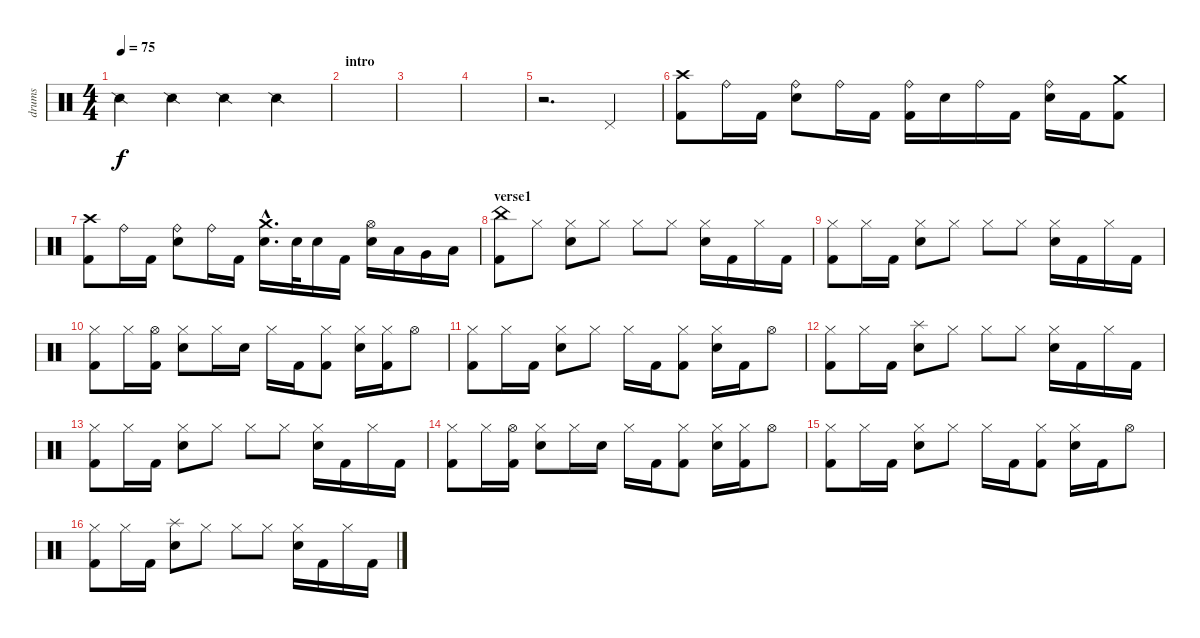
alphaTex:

\track ("drums" "drums") {instrument percussion}
\staff {score}
\articulation defaults
\ts (4 4)
\tempo 75
\clef neutral
\ks c "Snare (side stick) 2".4{dy f} "Snare (side stick) 2".4 "Snare (side stick) 2".4 "Snare (side stick) 2".4
|
\section ("" "intro")
|
|
|
r.2{d} "Pedal Hi-Hat (hit)".4 |
("Crash high (hit)" "Kick (hit) 2").8 "Ride (bell)".16 "Kick (hit) 2".16 ("Ride (bell)" "Electric Snare (hit)").8 "Ride (bell)".16 "Kick (hit) 2".16 ("Ride (bell)" "Kick (hit) 2").16 "Electric Snare (hit)".16 "Ride (bell)".16 "Kick (hit) 2".16 ("Ride (bell)" "Electric Snare (hit)").16 "Kick (hit) 2".16 ("Crash medium (hit)" "Kick (hit) 2").8 |
("Crash high (hit)" "Kick (hit) 2").8 "Ride (bell)".16 "Kick (hit) 2".16 ("Ride (bell)" "Electric Snare (hit)").8 "Ride (bell)".16 "Kick (hit) 2".16 ("Crash medium (hit)"{hac} "Electric Snare (hit)"{hac}).16{d} "Electric Snare (hit)".32 "Electric Snare (hit)".16 "Kick (hit) 2".16 ("Hi-Hat (open)" "Electric Snare (hit)").16 "Low Tom (hit)".16 "Very Low Tom (hit)".16 "Low Floor Tom (hit)".16 |
\section ("" "verse1")
("China (hit)" "Kick (hit) 2").8 "Hi-Hat (closed)".8 ("Hi-Hat (closed)" "Electric Snare (hit)").8 "Hi-Hat (closed)".8 "Hi-Hat (closed)".8 "Hi-Hat (closed)".8 ("Hi-Hat (closed)" "Electric Snare (hit)").16 "Kick (hit) 2".16 "Hi-Hat (closed)".16 "Kick (hit) 2".16 |
("Hi-Hat (closed)" "Kick (hit) 2").8 "Hi-Hat (closed)".16 "Kick (hit) 2".16 ("Hi-Hat (closed)" "Electric Snare (hit)").8 "Hi-Hat (closed)".8 "Hi-Hat (closed)".8 "Hi-Hat (closed)".8 ("Hi-Hat (closed)" "Electric Snare (hit)").16 "Kick (hit) 2".16 "Hi-Hat (closed)".16 "Kick (hit) 2".16 |
("Hi-Hat (closed)" "Kick (hit) 2").8 "Hi-Hat (closed)".16 ("Hi-Hat (open)" "Kick (hit) 2").16 ("Hi-Hat (closed)" "Electric Snare (hit)").8 "Hi-Hat (closed)".16 "Electric Snare (hit)".16 "Hi-Hat (closed)".16 "Kick (hit) 2".16 ("Hi-Hat (closed)" "Kick (hit) 2").8 ("Hi-Hat (closed)" "Electric Snare (hit)").16 ("Hi-Hat (closed)" "Kick (hit) 2").16 "Hi-Hat (open)".8 |
("Hi-Hat (closed)" "Kick (hit) 2").8 "Hi-Hat (closed)".16 "Kick (hit) 2".16 ("Hi-Hat (closed)" "Electric Snare (hit)").8 "Hi-Hat (closed)".8 "Hi-Hat (closed)".16 "Kick (hit) 2".16 ("Hi-Hat (closed)" "Kick (hit) 2").8 ("Hi-Hat (closed)" "Electric Snare (hit)").16 "Kick (hit) 2".16 "Hi-Hat (open)".8 |
("Hi-Hat (closed)" "Kick (hit) 2").8 "Hi-Hat (closed)".16 "Kick (hit) 2".16 ("Splash (hit)" "Electric Snare (hit)").8 "Hi-Hat (closed)".8 "Hi-Hat (closed)".8 "Hi-Hat (closed)".8 ("Hi-Hat (closed)" "Electric Snare (hit)").16 "Kick (hit) 2".16 "Hi-Hat (closed)".16 "Kick (hit) 2".16 |
("Hi-Hat (closed)" "Kick (hit) 2").8 "Hi-Hat (closed)".16 "Kick (hit) 2".16 ("Hi-Hat (closed)" "Electric Snare (hit)").8 "Hi-Hat (closed)".8 "Hi-Hat (closed)".8 "Hi-Hat (closed)".8 ("Hi-Hat (closed)" "Electric Snare (hit)").16 "Kick (hit) 2".16 "Hi-Hat (closed)".16 "Kick (hit) 2".16 |
("Hi-Hat (closed)" "Kick (hit) 2").8 "Hi-Hat (closed)".16 ("Hi-Hat (open)" "Kick (hit) 2").16 ("Hi-Hat (closed)" "Electric Snare (hit)").8 "Hi-Hat (closed)".16 "Electric Snare (hit)".16 "Hi-Hat (closed)".16 "Kick (hit) 2".16 ("Hi-Hat (closed)" "Kick (hit) 2").8 ("Hi-Hat (closed)" "Electric Snare (hit)").16 ("Hi-Hat (closed)" "Kick (hit) 2").16 "Hi-Hat (open)".8 |
("Hi-Hat (closed)" "Kick (hit) 2").8 "Hi-Hat (closed)".16 "Kick (hit) 2".16 ("Hi-Hat (closed)" "Electric Snare (hit)").8 "Hi-Hat (closed)".8 "Hi-Hat (closed)".16 "Kick (hit) 2".16 ("Hi-Hat (closed)" "Kick (hit) 2").8 ("Hi-Hat (closed)" "Electric Snare (hit)").16 "Kick (hit) 2".16 "Hi-Hat (open)".8 |
("Hi-Hat (closed)" "Kick (hit) 2").8 "Hi-Hat (closed)".16 "Kick (hit) 2".16 ("Splash (hit)" "Electric Snare (hit)").8 "Hi-Hat (closed)".8 "Hi-Hat (closed)".8 "Hi-Hat (closed)".8 ("Hi-Hat (closed)" "Electric Snare (hit)").16 "Kick (hit) 2".16 "Hi-Hat (closed)".16 "Kick (hit) 2".16
